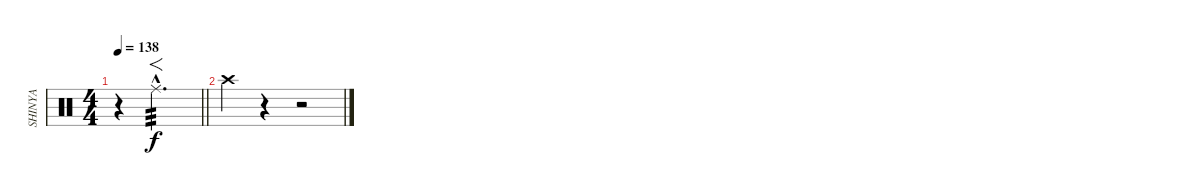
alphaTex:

\track ("SHINYA" "SHINYA") {instrument percussion}
\staff {score}
\articulation defaults
\ts (4 4)
\tempo 138
\clef neutral
\barLineRight lightlight
\ks c
r.4{dy f} "Ride (middle)"{hac}.2{f d tp 3} |
"Crash high (hit)".4 r.4 r.2
